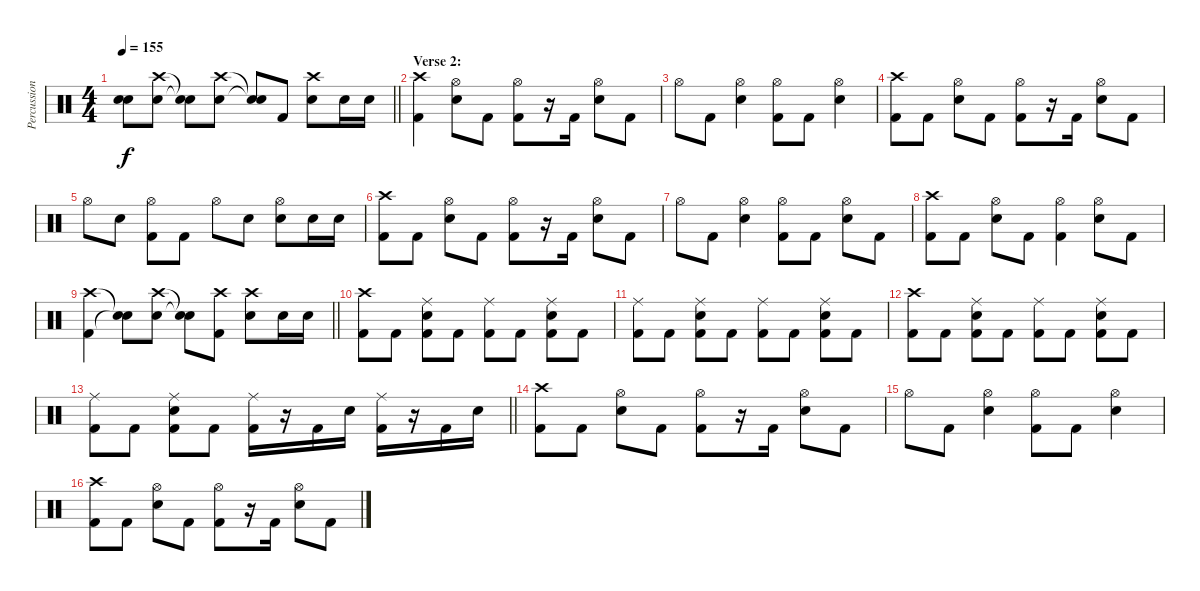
\track ("Percussion" "Percussion") {instrument percussion}
\staff {score}
\articulation defaults
\ts (4 4)
\tempo 155
\clef neutral
\barLineRight lightlight
\ks c
("Snare (hit)"{t} "Snare (hit)"{t}).8{dy f} ("Crash high (hit)" "Electric Snare (hit)").8 ("Snare (hit)"{t} "Snare (hit)"{t}).8 ("Crash high (hit)" "Electric Snare (hit)").8 ("Snare (hit)"{t} "Snare (hit)"{t}).8 "Kick (hit) 2".8 ("Crash high (hit)" "Electric Snare (hit)").8 "Electric Snare (hit)".16 "Electric Snare (hit)".16 |
\section ("" "Verse 2:")
("Crash high (hit)" "Kick (hit) 2").4 ("Hi-Hat (open)" "Electric Snare (hit)").8 "Kick (hit) 2".8 ("Hi-Hat (open)" "Kick (hit) 2").8 r.16 "Kick (hit) 2".16 ("Hi-Hat (open)" "Electric Snare (hit)").8 "Kick (hit) 2".8 |
"Hi-Hat (open)".8 "Kick (hit) 2".8 ("Hi-Hat (open)" "Electric Snare (hit)").4 ("Hi-Hat (open)" "Kick (hit) 2").8 "Kick (hit) 2".8 ("Hi-Hat (open)" "Electric Snare (hit)").4 |
("Crash high (hit)" "Kick (hit) 2").8 "Kick (hit) 2".8 ("Hi-Hat (open)" "Electric Snare (hit)").8 "Kick (hit) 2".8 ("Hi-Hat (open)" "Kick (hit) 2").8 r.16 "Kick (hit) 2".16 ("Hi-Hat (open)" "Electric Snare (hit)").8 "Kick (hit) 2".8 |
"Hi-Hat (open)".8 "Electric Snare (hit)".8 ("Hi-Hat (open)" "Kick (hit) 2").8 "Kick (hit) 2".8 "Hi-Hat (open)".8 "Electric Snare (hit)".8 ("Hi-Hat (open)" "Electric Snare (hit)").8 "Electric Snare (hit)".16 "Electric Snare (hit)".16 |
("Crash high (hit)" "Kick (hit) 2").8 "Kick (hit) 2".8 ("Hi-Hat (open)" "Electric Snare (hit)").8 "Kick (hit) 2".8 ("Hi-Hat (open)" "Kick (hit) 2").8 r.16 "Kick (hit) 2".16 ("Hi-Hat (open)" "Electric Snare (hit)").8 "Kick (hit) 2".8 |
"Hi-Hat (open)".8 "Kick (hit) 2".8 ("Hi-Hat (open)" "Electric Snare (hit)").4 ("Hi-Hat (open)" "Kick (hit) 2").8 "Kick (hit) 2".8 ("Hi-Hat (open)" "Electric Snare (hit)").8 "Kick (hit) 2".8 |
("Crash high (hit)" "Kick (hit) 2").8 "Kick (hit) 2".8 ("Hi-Hat (open)" "Electric Snare (hit)").8 "Kick (hit) 2".8 ("Hi-Hat (open)" "Kick (hit) 2").4 ("Hi-Hat (open)" "Electric Snare (hit)").8 "Kick (hit) 2".8 |
\barLineRight lightlight
("Crash high (hit)" "Kick (hit) 2").4 ("Snare (hit)"{t} "Snare (hit)"{t}).8 ("Crash high (hit)" "Electric Snare (hit)").8 ("Snare (hit)"{t} "Snare (hit)"{t}).8 ("Crash high (hit)" "Kick (hit) 2").8 ("Crash high (hit)" "Electric Snare (hit)").8 "Electric Snare (hit)".16 "Electric Snare (hit)".16 |
("Crash high (hit)" "Kick (hit) 2").8 "Kick (hit) 2".8 ("Ride (middle)" "Snare (hit) 2" "Kick (hit) 2").8 "Kick (hit) 2".8 ("Ride (middle)" "Kick (hit) 2").8 "Kick (hit) 2".8 ("Ride (middle)" "Snare (hit) 2" "Kick (hit) 2").8 "Kick (hit) 2".8 |
("Ride (middle)" "Kick (hit) 2").8 "Kick (hit) 2".8 ("Ride (middle)" "Snare (hit) 2" "Kick (hit) 2").8 "Kick (hit) 2".8 ("Ride (middle)" "Kick (hit) 2").8 "Kick (hit) 2".8 ("Ride (middle)" "Snare (hit) 2" "Kick (hit) 2").8 "Kick (hit) 2".8 |
("Crash high (hit)" "Kick (hit) 2").8 "Kick (hit) 2".8 ("Ride (middle)" "Snare (hit) 2" "Kick (hit) 2").8 "Kick (hit) 2".8 ("Ride (middle)" "Kick (hit) 2").8 "Kick (hit) 2".8 ("Ride (middle)" "Snare (hit) 2" "Kick (hit) 2").8 "Kick (hit) 2".8 |
\barLineRight lightlight
("Ride (middle)" "Kick (hit) 2").8 "Kick (hit) 2".8 ("Ride (middle)" "Snare (hit) 2" "Kick (hit) 2").8 "Kick (hit) 2".8 ("Ride (middle)" "Kick (hit) 2").16 r.16 "Kick (hit) 2".16 "Snare (hit) 2".16 ("Ride (middle)" "Kick (hit) 2").16 r.16 "Kick (hit) 2".16 "Snare (hit) 2".16 |
("Crash high (hit)" "Kick (hit) 2").8 "Kick (hit) 2".8 ("Hi-Hat (open)" "Electric Snare (hit)").8 "Kick (hit) 2".8 ("Hi-Hat (open)" "Kick (hit) 2").8 r.16 "Kick (hit) 2".16 ("Hi-Hat (open)" "Electric Snare (hit)").8 "Kick (hit) 2".8 |
"Hi-Hat (open)".8 "Kick (hit) 2".8 ("Hi-Hat (open)" "Electric Snare (hit)").4 ("Hi-Hat (open)" "Kick (hit) 2").8 "Kick (hit) 2".8 ("Hi-Hat (open)" "Electric Snare (hit)").4 |
("Crash high (hit)" "Kick (hit) 2").8 "Kick (hit) 2".8 ("Hi-Hat (open)" "Electric Snare (hit)").8 "Kick (hit) 2".8 ("Hi-Hat (open)" "Kick (hit) 2").8 r.16 "Kick (hit) 2".16 ("Hi-Hat (open)" "Electric Snare (hit)").8 "Kick (hit) 2".8
